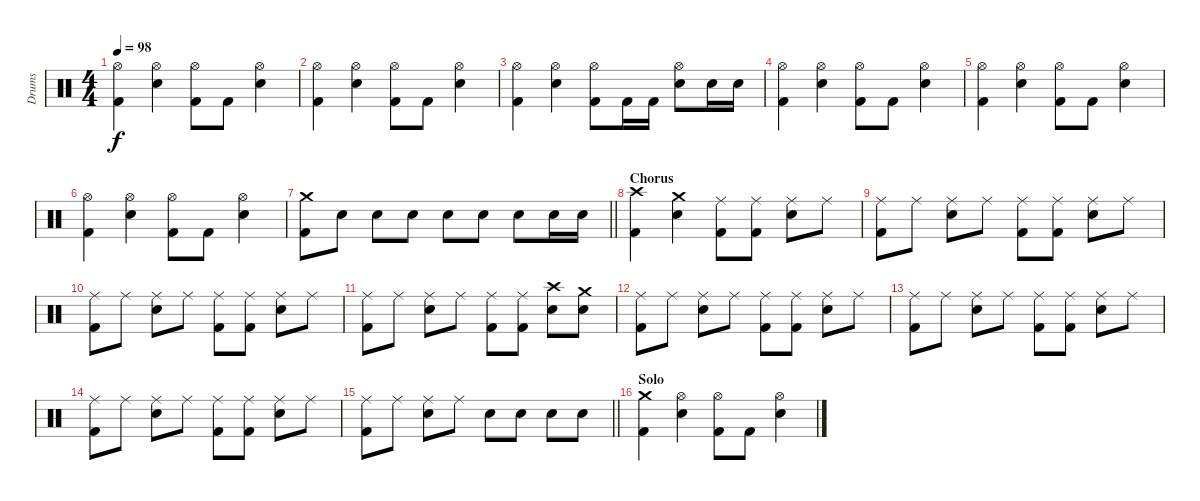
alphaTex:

\track ("Drums" "Drums") {instrument percussion}
\staff {score}
\articulation defaults
\ts (4 4)
\tempo 98
\clef neutral
\ks c
("Hi-Hat (open)" "Kick (hit) 2").4{dy f} ("Hi-Hat (open)" "Snare (hit) 2").4 ("Hi-Hat (open)" "Kick (hit) 2").8 "Kick (hit) 2".8 ("Hi-Hat (open)" "Snare (hit) 2").4 |
("Hi-Hat (open)" "Kick (hit) 2").4 ("Hi-Hat (open)" "Snare (hit) 2").4 ("Hi-Hat (open)" "Kick (hit) 2").8 "Kick (hit) 2".8 ("Hi-Hat (open)" "Snare (hit) 2").4 |
("Hi-Hat (open)" "Kick (hit) 2").4 ("Hi-Hat (open)" "Snare (hit) 2").4 ("Hi-Hat (open)" "Kick (hit) 2").8 "Kick (hit) 2".16 "Kick (hit) 2".16 ("Hi-Hat (open)" "Snare (hit) 2").8 "Snare (hit) 2".16 "Snare (hit) 2".16 |
("Hi-Hat (open)" "Kick (hit) 2").4 ("Hi-Hat (open)" "Snare (hit) 2").4 ("Hi-Hat (open)" "Kick (hit) 2").8 "Kick (hit) 2".8 ("Hi-Hat (open)" "Snare (hit) 2").4 |
("Hi-Hat (open)" "Kick (hit) 2").4 ("Hi-Hat (open)" "Snare (hit) 2").4 ("Hi-Hat (open)" "Kick (hit) 2").8 "Kick (hit) 2".8 ("Hi-Hat (open)" "Snare (hit) 2").4 |
("Hi-Hat (open)" "Kick (hit) 2").4 ("Hi-Hat (open)" "Snare (hit) 2").4 ("Hi-Hat (open)" "Kick (hit) 2").8 "Kick (hit) 2".8 ("Hi-Hat (open)" "Snare (hit) 2").4 |
\barLineRight lightlight
("Crash medium (hit)" "Kick (hit) 2").8 "Snare (hit) 2".8 "Snare (hit) 2".8 "Snare (hit) 2".8 "Snare (hit) 2".8 "Snare (hit) 2".8 "Snare (hit) 2".8 "Snare (hit) 2".16 "Snare (hit) 2".16 |
\section ("" "Chorus")
("Crash high (hit)" "Kick (hit) 2").4 ("Crash medium (hit)" "Snare (hit) 2").4 ("Ride (middle)" "Kick (hit) 2").8 ("Ride (middle)" "Kick (hit) 2").8 ("Ride (middle)" "Snare (hit) 2").8 "Ride (middle)".8 |
("Ride (middle)" "Kick (hit) 2").8 "Ride (middle)".8 ("Ride (middle)" "Snare (hit) 2").8 "Ride (middle)".8 ("Ride (middle)" "Kick (hit) 2").8 ("Ride (middle)" "Kick (hit) 2").8 ("Ride (middle)" "Snare (hit) 2").8 "Ride (middle)".8 |
("Ride (middle)" "Kick (hit) 2").8 "Ride (middle)".8 ("Ride (middle)" "Snare (hit) 2").8 "Ride (middle)".8 ("Ride (middle)" "Kick (hit) 2").8 ("Ride (middle)" "Kick (hit) 2").8 ("Ride (middle)" "Snare (hit) 2").8 "Ride (middle)".8 |
("Ride (middle)" "Kick (hit) 2").8 "Ride (middle)".8 ("Ride (middle)" "Snare (hit) 2").8 "Ride (middle)".8 ("Ride (middle)" "Kick (hit) 2").8 ("Ride (middle)" "Kick (hit) 2").8 ("Crash high (hit)" "Snare (hit) 2").8 ("Crash medium (hit)" "Snare (hit) 2").8 |
("Ride (middle)" "Kick (hit) 2").8 "Ride (middle)".8 ("Ride (middle)" "Snare (hit) 2").8 "Ride (middle)".8 ("Ride (middle)" "Kick (hit) 2").8 ("Ride (middle)" "Kick (hit) 2").8 ("Ride (middle)" "Snare (hit) 2").8 "Ride (middle)".8 |
("Ride (middle)" "Kick (hit) 2").8 "Ride (middle)".8 ("Ride (middle)" "Snare (hit) 2").8 "Ride (middle)".8 ("Ride (middle)" "Kick (hit) 2").8 ("Ride (middle)" "Kick (hit) 2").8 ("Ride (middle)" "Snare (hit) 2").8 "Ride (middle)".8 |
("Ride (middle)" "Kick (hit) 2").8 "Ride (middle)".8 ("Ride (middle)" "Snare (hit) 2").8 "Ride (middle)".8 ("Ride (middle)" "Kick (hit) 2").8 ("Ride (middle)" "Kick (hit) 2").8 ("Ride (middle)" "Snare (hit) 2").8 "Ride (middle)".8 |
\barLineRight lightlight
("Ride (middle)" "Kick (hit) 2").8 "Ride (middle)".8 ("Ride (middle)" "Snare (hit) 2").8 "Ride (middle)".8 "Snare (hit) 2".8 "Snare (hit) 2".8 "Snare (hit) 2".8 "Snare (hit) 2".8 |
\section ("" "Solo")
("Crash medium (hit)" "Kick (hit) 2").4 ("Hi-Hat (open)" "Snare (hit) 2").4 ("Hi-Hat (open)" "Kick (hit) 2").8 "Kick (hit) 2".8 ("Hi-Hat (open)" "Snare (hit) 2").4
